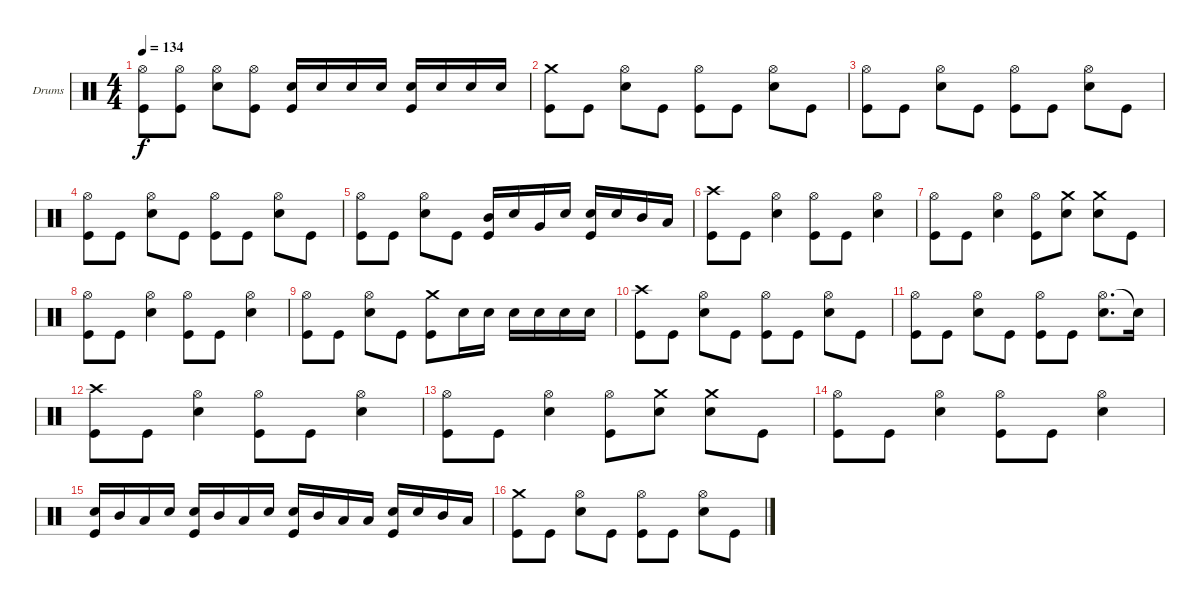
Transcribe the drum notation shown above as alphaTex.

\defaultSystemsLayout 4
\bracketExtendMode groupsimilarinstruments
\firstSystemTrackNameOrientation horizontal
\otherSystemsTrackNameOrientation horizontal
\track ("Drumkit" "Drums") {instrument percussion}
\staff {score}
\articulation defaults
\ts (4 4)
\tempo 134
\clef neutral
\scale
0.333333
\ks c
("Hi-Hat (open)" "Kick (hit)").8{dy f} ("Hi-Hat (open)" "Kick (hit)").8 ("Hi-Hat (open)" "Snare (hit) 2").8 ("Hi-Hat (open)" "Kick (hit)").8 ("Snare (hit) 2" "Kick (hit)").16 "Snare (hit) 2".16 "Snare (hit) 2".16 "Snare (hit) 2".16 ("Snare (hit) 2" "Kick (hit)").16 "Snare (hit) 2".16 "Snare (hit) 2".16 "Snare (hit) 2".16 |
\scale
0.333333 ("Crash medium (hit)" "Kick (hit)").8 "Kick (hit)".8 ("Hi-Hat (open)" "Snare (hit) 2").8 "Kick (hit)".8 ("Hi-Hat (open)" "Kick (hit)").8 "Kick (hit)".8 ("Hi-Hat (open)" "Snare (hit) 2").8 "Kick (hit)".8 |
\scale
0.333333 ("Hi-Hat (open)" "Kick (hit)").8 "Kick (hit)".8 ("Hi-Hat (open)" "Snare (hit) 2").8 "Kick (hit)".8 ("Hi-Hat (open)" "Kick (hit)").8 "Kick (hit)".8 ("Hi-Hat (open)" "Snare (hit) 2").8 "Kick (hit)".8 |
\scale
0.333333 ("Hi-Hat (open)" "Kick (hit)").8 "Kick (hit)".8 ("Hi-Hat (open)" "Snare (hit) 2").8 "Kick (hit)".8 ("Hi-Hat (open)" "Kick (hit)").8 "Kick (hit)".8 ("Hi-Hat (open)" "Snare (hit) 2").8 "Kick (hit)".8 |
\scale
0.333333 ("Hi-Hat (open)" "Kick (hit)").8 "Kick (hit)".8 ("Hi-Hat (open)" "Snare (hit) 2").8 "Kick (hit)".8 ("Mid Tom (hit)" "Kick (hit)").16 "Snare (hit) 2".16 "Very Low Tom (hit)".16 "Snare (hit) 2".16 ("Snare (hit) 2" "Kick (hit)").16 "Snare (hit) 2".16 "Mid Tom (hit)".16 "Low Tom (hit)".16 |
\scale
0.333333 ("Crash high (hit)" "Kick (hit)").8 "Kick (hit)".8 ("Hi-Hat (open)" "Snare (hit) 2").4 ("Hi-Hat (open)" "Kick (hit)").8 "Kick (hit)".8 ("Hi-Hat (open)" "Snare (hit) 2").4 |
\scale
0.333333 ("Hi-Hat (open)" "Kick (hit)").8 "Kick (hit)".8 ("Hi-Hat (open)" "Snare (hit) 2").4 ("Hi-Hat (open)" "Kick (hit)").8 ("Crash medium (hit)" "Snare (hit) 2").8 ("Crash medium (hit)" "Snare (hit) 2").8 "Kick (hit)".8 |
\scale
0.333333 ("Hi-Hat (open)" "Kick (hit)").8 "Kick (hit)".8 ("Hi-Hat (open)" "Snare (hit) 2").4 ("Hi-Hat (open)" "Kick (hit)").8 "Kick (hit)".8 ("Hi-Hat (open)" "Snare (hit) 2").4 |
\scale
0.333333 ("Hi-Hat (open)" "Kick (hit)").8 "Kick (hit)".8 ("Hi-Hat (open)" "Snare (hit) 2").8 "Kick (hit)".8 ("Crash medium (hit)" "Kick (hit)").8 "Snare (hit) 2".16 "Snare (hit) 2".16 "Snare (hit) 2".16 "Snare (hit) 2".16 "Snare (hit) 2".16 "Snare (hit) 2".16 |
\scale
0.333333 ("Crash high (hit)" "Kick (hit)").8 "Kick (hit)".8 ("Hi-Hat (open)" "Snare (hit) 2").8 "Kick (hit)".8 ("Hi-Hat (open)" "Kick (hit)").8 "Kick (hit)".8 ("Hi-Hat (open)" "Snare (hit) 2").8 "Kick (hit)".8 |
\scale
0.333333 ("Hi-Hat (open)" "Kick (hit)").8 "Kick (hit)".8 ("Hi-Hat (open)" "Snare (hit) 2").8 "Kick (hit)".8 ("Hi-Hat (open)" "Kick (hit)").8 "Kick (hit)".8 ("Hi-Hat (open)" "Snare (hit) 2").8{d} "Snare (hit) 2"{t}.16 |
\scale
0.333333 ("Crash high (hit)" "Kick (hit)").8 "Kick (hit)".8 ("Hi-Hat (open)" "Snare (hit) 2").4 ("Hi-Hat (open)" "Kick (hit)").8 "Kick (hit)".8 ("Hi-Hat (open)" "Snare (hit) 2").4 |
\scale
0.333333 ("Hi-Hat (open)" "Kick (hit)").8 "Kick (hit)".8 ("Hi-Hat (open)" "Snare (hit) 2").4 ("Hi-Hat (open)" "Kick (hit)").8 ("Crash medium (hit)" "Snare (hit) 2").8 ("Crash medium (hit)" "Snare (hit) 2").8 "Kick (hit)".8 |
\scale
0.333333 ("Hi-Hat (open)" "Kick (hit)").8 "Kick (hit)".8 ("Hi-Hat (open)" "Snare (hit) 2").4 ("Hi-Hat (open)" "Kick (hit)").8 "Kick (hit)".8 ("Hi-Hat (open)" "Snare (hit) 2").4 |
\scale
0.333333 ("Snare (hit) 2" "Kick (hit)").16 "Mid Tom (hit)".16 "Low Tom (hit)".16 "Snare (hit) 2".16 ("Snare (hit) 2" "Kick (hit)").16 "Mid Tom (hit)".16 "Low Tom (hit)".16 "Snare (hit) 2".16 ("Snare (hit) 2" "Kick (hit)").16 "Mid Tom (hit)".16 "Low Tom (hit)".16 "Low Tom (hit)".16 ("Snare (hit) 2" "Kick (hit)").16 "Snare (hit) 2".16 "Mid Tom (hit)".16 "Low Tom (hit)".16 |
\scale
0.333333 ("Crash medium (hit)" "Kick (hit)").8 "Kick (hit)".8 ("Hi-Hat (open)" "Snare (hit) 2").8 "Kick (hit)".8 ("Hi-Hat (open)" "Kick (hit)").8 "Kick (hit)".8 ("Hi-Hat (open)" "Snare (hit) 2").8 "Kick (hit)".8
